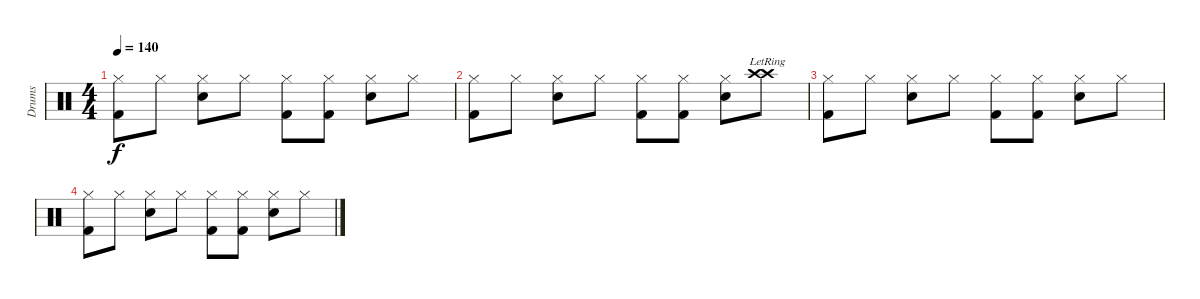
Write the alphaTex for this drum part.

\track ("Drums" "Drums") {instrument percussion}
\staff {score}
\articulation defaults
\ts (4 4)
\tempo 140
\clef neutral
\ks c
("Hi-Hat (closed)" "Kick (hit) 2").8{dy f volume 7} "Hi-Hat (closed)".8 ("Hi-Hat (closed)" "Snare (hit) 2").8 "Hi-Hat (closed)".8 ("Hi-Hat (closed)" "Kick (hit) 2").8 ("Hi-Hat (closed)" "Kick (hit) 2").8 ("Hi-Hat (closed)" "Snare (hit) 2").8 "Hi-Hat (closed)".8 |
("Hi-Hat (closed)" "Kick (hit) 2").8{volume 6} "Hi-Hat (closed)".8 ("Hi-Hat (closed)" "Snare (hit) 2").8 "Hi-Hat (closed)".8 ("Hi-Hat (closed)" "Kick (hit) 2").8 ("Hi-Hat (closed)" "Kick (hit) 2").8 ("Hi-Hat (closed)" "Snare (hit) 2").8 ("Crash high (hit)"{lr} "Crash high (hit)"{lr}).8 |
("Hi-Hat (closed)" "Kick (hit) 2").8{volume 4} "Hi-Hat (closed)".8 ("Hi-Hat (closed)" "Snare (hit) 2").8 "Hi-Hat (closed)".8 ("Hi-Hat (closed)" "Kick (hit) 2").8 ("Hi-Hat (closed)" "Kick (hit) 2").8 ("Hi-Hat (closed)" "Snare (hit) 2").8 "Hi-Hat (closed)".8 |
("Hi-Hat (closed)" "Kick (hit) 2").8 "Hi-Hat (closed)".8 ("Hi-Hat (closed)" "Snare (hit) 2").8 "Hi-Hat (closed)".8 ("Hi-Hat (closed)" "Kick (hit) 2").8 ("Hi-Hat (closed)" "Kick (hit) 2").8 ("Hi-Hat (closed)" "Snare (hit) 2").8 "Hi-Hat (closed)".8
